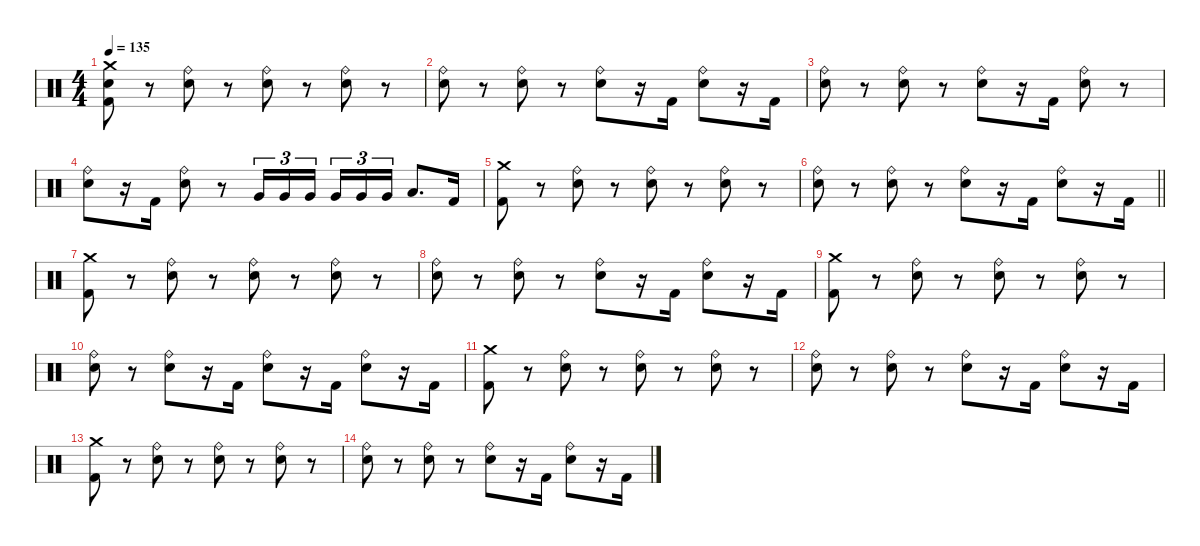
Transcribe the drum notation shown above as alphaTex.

\defaultSystemsLayout 4
\hideDynamics
\bracketExtendMode nobrackets
\singleTrackTrackNamePolicy hidden
\multiTrackTrackNamePolicy hidden
\firstSystemTrackNameMode fullname
\firstSystemTrackNameOrientation horizontal
\otherSystemsTrackNameOrientation horizontal
\track ("Bill Ward - Drums" "drm.") {instrument percussion}
\staff {score}
\articulation defaults
\ts (4 4)
\tempo 135
\clef neutral
\ks c
("Crash medium (hit)" "Snare (hit) 2" "Kick (hit) 2").8{dy f} r.8 ("Ride (bell)" "Snare (hit) 2").8 r.8 ("Ride (bell)" "Snare (hit) 2").8 r.8 ("Ride (bell)" "Snare (hit) 2").8 r.8 |
("Ride (bell)" "Snare (hit) 2").8 r.8 ("Ride (bell)" "Snare (hit) 2").8 r.8 ("Ride (bell)" "Snare (hit) 2").8 r.16 "Kick (hit) 2".16{dy mf} ("Ride (bell)" "Snare (hit) 2").8{dy f} r.16 "Kick (hit) 2".16{dy mf} |
("Ride (bell)" "Snare (hit) 2").8{dy f} r.8 ("Ride (bell)" "Snare (hit) 2").8 r.8 ("Ride (bell)" "Snare (hit) 2").8 r.16 "Kick (hit) 2".16{dy mf} ("Ride (bell)" "Snare (hit) 2").8{dy f} r.8 |
("Ride (bell)" "Snare (hit) 2").8{dy mf} r.16 "Kick (hit) 2".16 ("Ride (bell)" "Snare (hit) 2").8{dy f} r.8 "Very Low Tom (hit)".16{tu (3 2)} "Very Low Tom (hit)".16{tu (3 2)} "Very Low Tom (hit)".16{tu (3 2)} "Very Low Tom (hit)".16{tu (3 2)} "Very Low Tom (hit)".16{tu (3 2)} "Very Low Tom (hit)".16{tu (3 2)} "Low Floor Tom (hit)".8{d} "Kick (hit) 2".16 |
("Crash medium (hit)" "Kick (hit) 2").8 r.8 ("Ride (bell)" "Snare (hit) 2").8 r.8 ("Ride (bell)" "Snare (hit) 2").8 r.8 ("Ride (bell)" "Snare (hit) 2").8 r.8 |
\barLineRight lightlight
("Ride (bell)" "Snare (hit) 2").8 r.8 ("Ride (bell)" "Snare (hit) 2").8 r.8 ("Ride (bell)" "Snare (hit) 2").8 r.16 "Kick (hit) 2".16{dy mf} ("Ride (bell)" "Snare (hit) 2").8{dy f} r.16 "Kick (hit) 2".16{dy mf} |
("Crash medium (hit)" "Kick (hit) 2").8{dy f} r.8 ("Ride (bell)" "Snare (hit) 2").8 r.8 ("Ride (bell)" "Snare (hit) 2").8 r.8 ("Ride (bell)" "Snare (hit) 2").8 r.8 |
("Ride (bell)" "Snare (hit) 2").8 r.8 ("Ride (bell)" "Snare (hit) 2").8 r.8 ("Ride (bell)" "Snare (hit) 2").8 r.16 "Kick (hit) 2".16{dy mf} ("Ride (bell)" "Snare (hit) 2").8{dy f} r.16 "Kick (hit) 2".16{dy mf} |
("Crash medium (hit)" "Kick (hit) 2").8{dy f} r.8 ("Ride (bell)" "Snare (hit) 2").8 r.8 ("Ride (bell)" "Snare (hit) 2").8 r.8 ("Ride (bell)" "Snare (hit) 2").8 r.8 |
("Ride (bell)" "Snare (hit) 2").8 r.8 ("Ride (bell)" "Snare (hit) 2").8 r.16 "Kick (hit) 2".16{dy mf} ("Ride (bell)" "Snare (hit) 2").8{dy f} r.16 "Kick (hit) 2".16{dy mf} ("Ride (bell)" "Snare (hit) 2").8{dy f} r.16 "Kick (hit) 2".16{dy mf} |
("Crash medium (hit)" "Kick (hit) 2").8{dy f} r.8 ("Ride (bell)" "Snare (hit) 2").8 r.8 ("Ride (bell)" "Snare (hit) 2").8 r.8 ("Ride (bell)" "Snare (hit) 2").8 r.8 |
("Ride (bell)" "Snare (hit) 2").8 r.8 ("Ride (bell)" "Snare (hit) 2").8 r.8 ("Ride (bell)" "Snare (hit) 2").8 r.16 "Kick (hit) 2".16{dy mf} ("Ride (bell)" "Snare (hit) 2").8{dy f} r.16 "Kick (hit) 2".16{dy mf} |
("Crash medium (hit)" "Kick (hit) 2").8{dy f} r.8 ("Ride (bell)" "Snare (hit) 2").8 r.8 ("Ride (bell)" "Snare (hit) 2").8 r.8 ("Ride (bell)" "Snare (hit) 2").8 r.8 |
("Ride (bell)" "Snare (hit) 2").8 r.8 ("Ride (bell)" "Snare (hit) 2").8 r.8 ("Ride (bell)" "Snare (hit) 2").8 r.16 "Kick (hit) 2".16{dy mf} ("Ride (bell)" "Snare (hit) 2").8{dy f} r.16 "Kick (hit) 2".16{dy mf}
